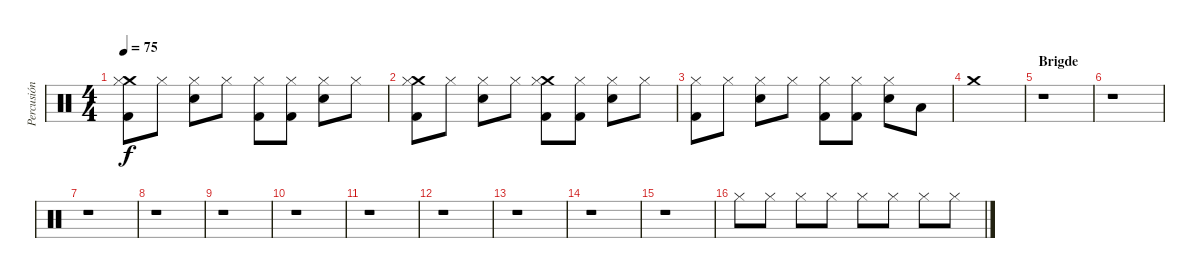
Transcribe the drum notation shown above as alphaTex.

\track ("Percusión" "Percusión") {instrument percussion}
\staff {score}
\articulation defaults
\ts (4 4)
\tempo 75
\clef neutral
\ks c
("Crash medium (hit)" "Hi-Hat (closed)" "Kick (hit) 2").8{dy f} "Hi-Hat (closed)".8 ("Hi-Hat (closed)" "Electric Snare (hit)").8 "Hi-Hat (closed)".8 ("Hi-Hat (closed)" "Kick (hit) 2").8 ("Hi-Hat (closed)" "Kick (hit) 2").8 ("Hi-Hat (closed)" "Electric Snare (hit)").8 "Hi-Hat (closed)".8 |
("Crash medium (hit)" "Hi-Hat (closed)" "Kick (hit) 2").8 "Hi-Hat (closed)".8 ("Hi-Hat (closed)" "Electric Snare (hit)").8 "Hi-Hat (closed)".8 ("Crash medium (hit)" "Hi-Hat (closed)" "Kick (hit) 2").8 ("Hi-Hat (closed)" "Kick (hit) 2").8 ("Hi-Hat (closed)" "Electric Snare (hit)").8 "Hi-Hat (closed)".8 |
("Hi-Hat (closed)" "Kick (hit) 2").8 "Hi-Hat (closed)".8 ("Hi-Hat (closed)" "Electric Snare (hit)").8 "Hi-Hat (closed)".8 ("Hi-Hat (closed)" "Kick (hit) 2").8 ("Hi-Hat (closed)" "Kick (hit) 2").8 ("Hi-Hat (closed)" "Electric Snare (hit)").8 "Low Tom (hit)".8 |
"Crash medium (hit)".1 |
\section ("" "Brigde")
r.1 |
r.1 |
r.1 |
r.1 |
r.1 |
r.1 |
r.1 |
r.1 |
r.1 |
r.1 |
r.1 |
"Hi-Hat (closed)".8{volume 7} "Hi-Hat (closed)".8 "Hi-Hat (closed)".8 "Hi-Hat (closed)".8 "Hi-Hat (closed)".8 "Hi-Hat (closed)".8 "Hi-Hat (closed)".8 "Hi-Hat (closed)".8
